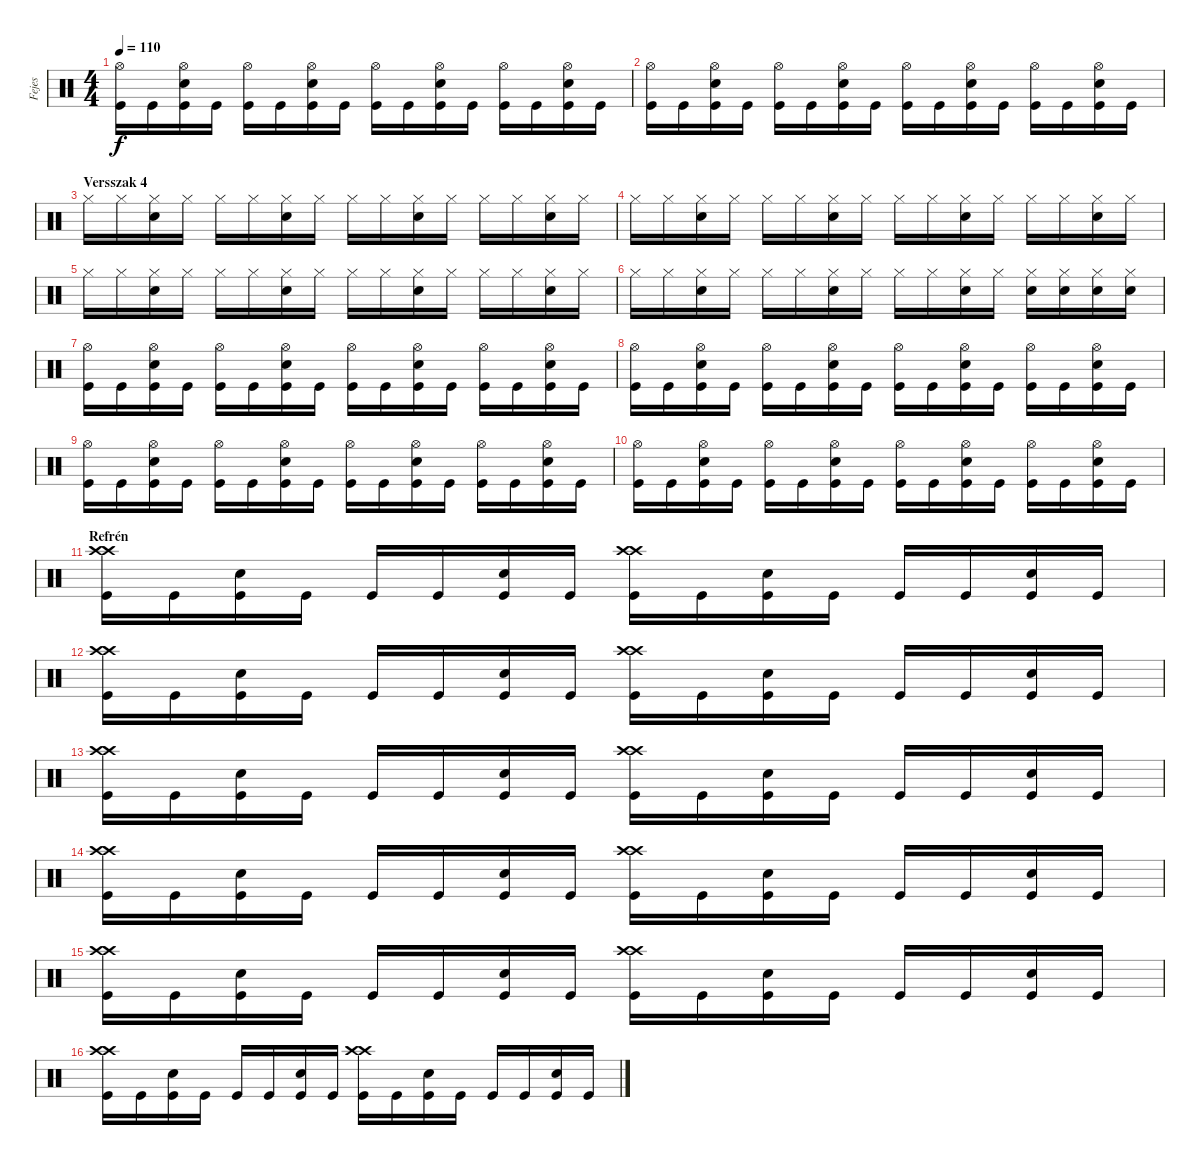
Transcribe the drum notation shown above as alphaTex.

\track ("Fejes" "Fejes") {instrument percussion}
\staff {score}
\articulation defaults
\ts (4 4)
\tempo 110
\clef neutral
\ks c
("Hi-Hat (open)" "Kick (hit)").16{dy f} "Kick (hit)".16 ("Hi-Hat (open)" "Snare (hit) 2" "Kick (hit)").16 "Kick (hit)".16 ("Hi-Hat (open)" "Kick (hit)").16 "Kick (hit)".16 ("Hi-Hat (open)" "Snare (hit) 2" "Kick (hit)").16 "Kick (hit)".16 ("Hi-Hat (open)" "Kick (hit)").16 "Kick (hit)".16 ("Hi-Hat (open)" "Snare (hit) 2" "Kick (hit)").16 "Kick (hit)".16 ("Hi-Hat (open)" "Kick (hit)").16 "Kick (hit)".16 ("Hi-Hat (open)" "Snare (hit) 2" "Kick (hit)").16 "Kick (hit)".16 |
("Hi-Hat (open)" "Kick (hit)").16 "Kick (hit)".16 ("Hi-Hat (open)" "Snare (hit) 2" "Kick (hit)").16 "Kick (hit)".16 ("Hi-Hat (open)" "Kick (hit)").16 "Kick (hit)".16 ("Hi-Hat (open)" "Snare (hit) 2" "Kick (hit)").16 "Kick (hit)".16 ("Hi-Hat (open)" "Kick (hit)").16 "Kick (hit)".16 ("Hi-Hat (open)" "Snare (hit) 2" "Kick (hit)").16 "Kick (hit)".16 ("Hi-Hat (open)" "Kick (hit)").16 "Kick (hit)".16 ("Hi-Hat (open)" "Snare (hit) 2" "Kick (hit)").16 "Kick (hit)".16 |
\section ("" "Versszak 4")
"Hi-Hat (closed)".16 "Hi-Hat (closed)".16 ("Hi-Hat (closed)" "Snare (hit) 2").16 "Hi-Hat (closed)".16 "Hi-Hat (closed)".16 "Hi-Hat (closed)".16 ("Hi-Hat (closed)" "Snare (hit) 2").16 "Hi-Hat (closed)".16 "Hi-Hat (closed)".16 "Hi-Hat (closed)".16 ("Hi-Hat (closed)" "Snare (hit) 2").16 "Hi-Hat (closed)".16 "Hi-Hat (closed)".16 "Hi-Hat (closed)".16 ("Hi-Hat (closed)" "Snare (hit) 2").16 "Hi-Hat (closed)".16 |
"Hi-Hat (closed)".16 "Hi-Hat (closed)".16 ("Hi-Hat (closed)" "Snare (hit) 2").16 "Hi-Hat (closed)".16 "Hi-Hat (closed)".16 "Hi-Hat (closed)".16 ("Hi-Hat (closed)" "Snare (hit) 2").16 "Hi-Hat (closed)".16 "Hi-Hat (closed)".16 "Hi-Hat (closed)".16 ("Hi-Hat (closed)" "Snare (hit) 2").16 "Hi-Hat (closed)".16 "Hi-Hat (closed)".16 "Hi-Hat (closed)".16 ("Hi-Hat (closed)" "Snare (hit) 2").16 "Hi-Hat (closed)".16 |
"Hi-Hat (closed)".16 "Hi-Hat (closed)".16 ("Hi-Hat (closed)" "Snare (hit) 2").16 "Hi-Hat (closed)".16 "Hi-Hat (closed)".16 "Hi-Hat (closed)".16 ("Hi-Hat (closed)" "Snare (hit) 2").16 "Hi-Hat (closed)".16 "Hi-Hat (closed)".16 "Hi-Hat (closed)".16 ("Hi-Hat (closed)" "Snare (hit) 2").16 "Hi-Hat (closed)".16 "Hi-Hat (closed)".16 "Hi-Hat (closed)".16 ("Hi-Hat (closed)" "Snare (hit) 2").16 "Hi-Hat (closed)".16 |
"Hi-Hat (closed)".16 "Hi-Hat (closed)".16 ("Hi-Hat (closed)" "Snare (hit) 2").16 "Hi-Hat (closed)".16 "Hi-Hat (closed)".16 "Hi-Hat (closed)".16 ("Hi-Hat (closed)" "Snare (hit) 2").16 "Hi-Hat (closed)".16 "Hi-Hat (closed)".16 "Hi-Hat (closed)".16 ("Hi-Hat (closed)" "Snare (hit) 2").16 "Hi-Hat (closed)".16 ("Hi-Hat (closed)" "Snare (hit) 2").16 ("Hi-Hat (closed)" "Snare (hit) 2").16 ("Hi-Hat (closed)" "Snare (hit) 2").16 ("Hi-Hat (closed)" "Snare (hit) 2").16 |
("Hi-Hat (open)" "Kick (hit)").16 "Kick (hit)".16 ("Hi-Hat (open)" "Snare (hit) 2" "Kick (hit)").16 "Kick (hit)".16 ("Hi-Hat (open)" "Kick (hit)").16 "Kick (hit)".16 ("Hi-Hat (open)" "Snare (hit) 2" "Kick (hit)").16 "Kick (hit)".16 ("Hi-Hat (open)" "Kick (hit)").16 "Kick (hit)".16 ("Hi-Hat (open)" "Snare (hit) 2" "Kick (hit)").16 "Kick (hit)".16 ("Hi-Hat (open)" "Kick (hit)").16 "Kick (hit)".16 ("Hi-Hat (open)" "Snare (hit) 2" "Kick (hit)").16 "Kick (hit)".16 |
("Hi-Hat (open)" "Kick (hit)").16 "Kick (hit)".16 ("Hi-Hat (open)" "Snare (hit) 2" "Kick (hit)").16 "Kick (hit)".16 ("Hi-Hat (open)" "Kick (hit)").16 "Kick (hit)".16 ("Hi-Hat (open)" "Snare (hit) 2" "Kick (hit)").16 "Kick (hit)".16 ("Hi-Hat (open)" "Kick (hit)").16 "Kick (hit)".16 ("Hi-Hat (open)" "Snare (hit) 2" "Kick (hit)").16 "Kick (hit)".16 ("Hi-Hat (open)" "Kick (hit)").16 "Kick (hit)".16 ("Hi-Hat (open)" "Snare (hit) 2" "Kick (hit)").16 "Kick (hit)".16 |
("Hi-Hat (open)" "Kick (hit)").16 "Kick (hit)".16 ("Hi-Hat (open)" "Snare (hit) 2" "Kick (hit)").16 "Kick (hit)".16 ("Hi-Hat (open)" "Kick (hit)").16 "Kick (hit)".16 ("Hi-Hat (open)" "Snare (hit) 2" "Kick (hit)").16 "Kick (hit)".16 ("Hi-Hat (open)" "Kick (hit)").16 "Kick (hit)".16 ("Hi-Hat (open)" "Snare (hit) 2" "Kick (hit)").16 "Kick (hit)".16 ("Hi-Hat (open)" "Kick (hit)").16 "Kick (hit)".16 ("Hi-Hat (open)" "Snare (hit) 2" "Kick (hit)").16 "Kick (hit)".16 |
("Hi-Hat (open)" "Kick (hit)").16 "Kick (hit)".16 ("Hi-Hat (open)" "Snare (hit) 2" "Kick (hit)").16 "Kick (hit)".16 ("Hi-Hat (open)" "Kick (hit)").16 "Kick (hit)".16 ("Hi-Hat (open)" "Snare (hit) 2" "Kick (hit)").16 "Kick (hit)".16 ("Hi-Hat (open)" "Kick (hit)").16 "Kick (hit)".16 ("Hi-Hat (open)" "Snare (hit) 2" "Kick (hit)").16 "Kick (hit)".16 ("Hi-Hat (open)" "Kick (hit)").16 "Kick (hit)".16 ("Hi-Hat (open)" "Snare (hit) 2" "Kick (hit)").16 "Kick (hit)".16 |
\section ("" "Refrén")
("Crash high (hit)" "Crash high (hit)" "Kick (hit)").16 "Kick (hit)".16 ("Snare (hit) 2" "Kick (hit)").16 "Kick (hit)".16 "Kick (hit)".16 "Kick (hit)".16 ("Snare (hit) 2" "Kick (hit)").16 "Kick (hit)".16 ("Crash high (hit)" "Crash high (hit)" "Kick (hit)").16 "Kick (hit)".16 ("Snare (hit) 2" "Kick (hit)").16 "Kick (hit)".16 "Kick (hit)".16 "Kick (hit)".16 ("Snare (hit) 2" "Kick (hit)").16 "Kick (hit)".16 |
("Crash high (hit)" "Crash high (hit)" "Kick (hit)").16 "Kick (hit)".16 ("Snare (hit) 2" "Kick (hit)").16 "Kick (hit)".16 "Kick (hit)".16 "Kick (hit)".16 ("Snare (hit) 2" "Kick (hit)").16 "Kick (hit)".16 ("Crash high (hit)" "Crash high (hit)" "Kick (hit)").16 "Kick (hit)".16 ("Snare (hit) 2" "Kick (hit)").16 "Kick (hit)".16 "Kick (hit)".16 "Kick (hit)".16 ("Snare (hit) 2" "Kick (hit)").16 "Kick (hit)".16 |
("Crash high (hit)" "Crash high (hit)" "Kick (hit)").16 "Kick (hit)".16 ("Snare (hit) 2" "Kick (hit)").16 "Kick (hit)".16 "Kick (hit)".16 "Kick (hit)".16 ("Snare (hit) 2" "Kick (hit)").16 "Kick (hit)".16 ("Crash high (hit)" "Crash high (hit)" "Kick (hit)").16 "Kick (hit)".16 ("Snare (hit) 2" "Kick (hit)").16 "Kick (hit)".16 "Kick (hit)".16 "Kick (hit)".16 ("Snare (hit) 2" "Kick (hit)").16 "Kick (hit)".16 |
("Crash high (hit)" "Crash high (hit)" "Kick (hit)").16 "Kick (hit)".16 ("Snare (hit) 2" "Kick (hit)").16 "Kick (hit)".16 "Kick (hit)".16 "Kick (hit)".16 ("Snare (hit) 2" "Kick (hit)").16 "Kick (hit)".16 ("Crash high (hit)" "Crash high (hit)" "Kick (hit)").16 "Kick (hit)".16 ("Snare (hit) 2" "Kick (hit)").16 "Kick (hit)".16 "Kick (hit)".16 "Kick (hit)".16 ("Snare (hit) 2" "Kick (hit)").16 "Kick (hit)".16 |
("Crash high (hit)" "Crash high (hit)" "Kick (hit)").16 "Kick (hit)".16 ("Snare (hit) 2" "Kick (hit)").16 "Kick (hit)".16 "Kick (hit)".16 "Kick (hit)".16 ("Snare (hit) 2" "Kick (hit)").16 "Kick (hit)".16 ("Crash high (hit)" "Crash high (hit)" "Kick (hit)").16 "Kick (hit)".16 ("Snare (hit) 2" "Kick (hit)").16 "Kick (hit)".16 "Kick (hit)".16 "Kick (hit)".16 ("Snare (hit) 2" "Kick (hit)").16 "Kick (hit)".16 |
("Crash high (hit)" "Crash high (hit)" "Kick (hit)").16 "Kick (hit)".16 ("Snare (hit) 2" "Kick (hit)").16 "Kick (hit)".16 "Kick (hit)".16 "Kick (hit)".16 ("Snare (hit) 2" "Kick (hit)").16 "Kick (hit)".16 ("Crash high (hit)" "Crash high (hit)" "Kick (hit)").16 "Kick (hit)".16 ("Snare (hit) 2" "Kick (hit)").16 "Kick (hit)".16 "Kick (hit)".16 "Kick (hit)".16 ("Snare (hit) 2" "Kick (hit)").16 "Kick (hit)".16
